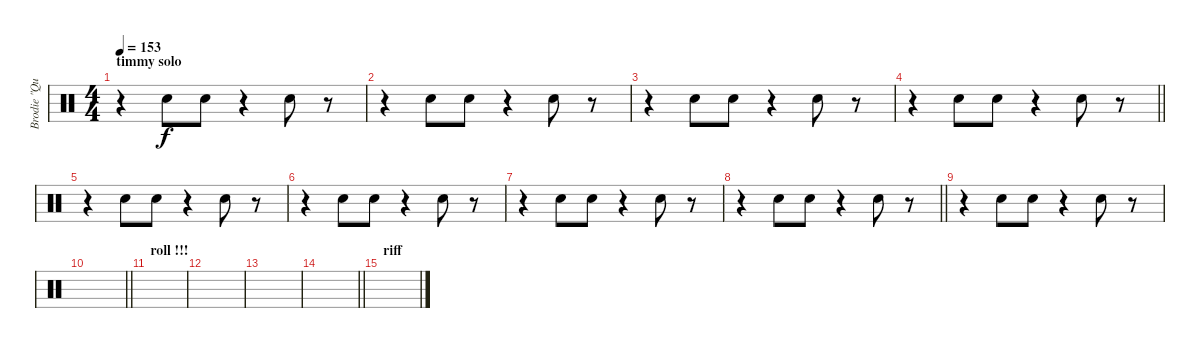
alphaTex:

\track ("Brodie \"Queen Be\" Dalle" "Brodie \"Qu") {instrument percussion}
\staff {score}
\articulation defaults
\ts (4 4)
\section ("" "timmy solo")
\tempo 153
\clef neutral
\ks c
r.4{dy f} "Hand Clap (hit)".8 "Hand Clap (hit)".8 r.4 "Hand Clap (hit)".8 r.8 |
r.4 "Hand Clap (hit)".8 "Hand Clap (hit)".8 r.4 "Hand Clap (hit)".8 r.8 |
r.4 "Hand Clap (hit)".8 "Hand Clap (hit)".8 r.4 "Hand Clap (hit)".8 r.8 |
\barLineRight lightlight
r.4 "Hand Clap (hit)".8 "Hand Clap (hit)".8 r.4 "Hand Clap (hit)".8 r.8 |
\section ("" "")
r.4 "Hand Clap (hit)".8 "Hand Clap (hit)".8 r.4 "Hand Clap (hit)".8 r.8 |
r.4 "Hand Clap (hit)".8 "Hand Clap (hit)".8 r.4 "Hand Clap (hit)".8 r.8 |
r.4 "Hand Clap (hit)".8 "Hand Clap (hit)".8 r.4 "Hand Clap (hit)".8 r.8 |
\barLineRight lightlight
r.4 "Hand Clap (hit)".8 "Hand Clap (hit)".8 r.4 "Hand Clap (hit)".8 r.8 |
\section ("" "")
r.4 "Hand Clap (hit)".8 "Hand Clap (hit)".8 r.4 "Hand Clap (hit)".8 r.8 |
\barLineRight lightlight
|
\section ("" "roll !!!")
|
|
|
\barLineRight lightlight
|
\section ("" "riff")
